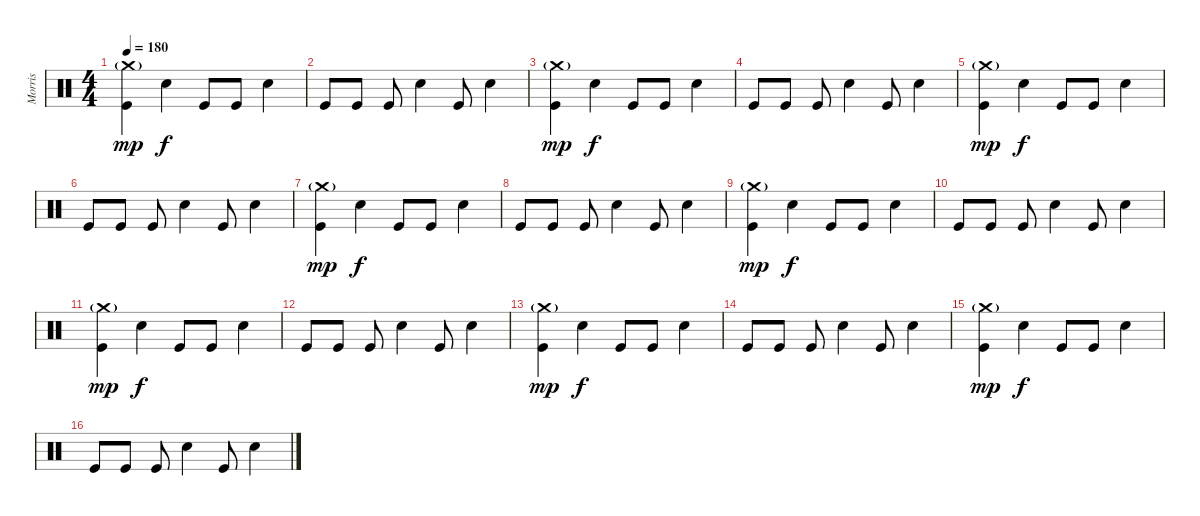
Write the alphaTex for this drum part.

\track ("Morris" "Morris") {instrument percussion}
\staff {score}
\articulation defaults
\ts (4 4)
\tempo 180
\clef neutral
\ks c
("Crash medium (hit)"{g} "Kick (hit)").4{dy mp} "Electric Snare (hit)".4{dy f} "Kick (hit)".8 "Kick (hit)".8 "Electric Snare (hit)".4 |
"Kick (hit)".8 "Kick (hit)".8 "Kick (hit)".8 "Electric Snare (hit)".4 "Kick (hit)".8 "Electric Snare (hit)".4 |
("Crash medium (hit)"{g} "Kick (hit)").4{dy mp} "Electric Snare (hit)".4{dy f} "Kick (hit)".8 "Kick (hit)".8 "Electric Snare (hit)".4 |
"Kick (hit)".8 "Kick (hit)".8 "Kick (hit)".8 "Electric Snare (hit)".4 "Kick (hit)".8 "Electric Snare (hit)".4 |
("Crash medium (hit)"{g} "Kick (hit)").4{dy mp} "Electric Snare (hit)".4{dy f} "Kick (hit)".8 "Kick (hit)".8 "Electric Snare (hit)".4 |
"Kick (hit)".8 "Kick (hit)".8 "Kick (hit)".8 "Electric Snare (hit)".4 "Kick (hit)".8 "Electric Snare (hit)".4 |
("Crash medium (hit)"{g} "Kick (hit)").4{dy mp} "Electric Snare (hit)".4{dy f} "Kick (hit)".8 "Kick (hit)".8 "Electric Snare (hit)".4 |
"Kick (hit)".8 "Kick (hit)".8 "Kick (hit)".8 "Electric Snare (hit)".4 "Kick (hit)".8 "Electric Snare (hit)".4 |
("Crash medium (hit)"{g} "Kick (hit)").4{dy mp} "Electric Snare (hit)".4{dy f} "Kick (hit)".8 "Kick (hit)".8 "Electric Snare (hit)".4 |
"Kick (hit)".8 "Kick (hit)".8 "Kick (hit)".8 "Electric Snare (hit)".4 "Kick (hit)".8 "Electric Snare (hit)".4 |
("Crash medium (hit)"{g} "Kick (hit)").4{dy mp} "Electric Snare (hit)".4{dy f} "Kick (hit)".8 "Kick (hit)".8 "Electric Snare (hit)".4 |
"Kick (hit)".8 "Kick (hit)".8 "Kick (hit)".8 "Electric Snare (hit)".4 "Kick (hit)".8 "Electric Snare (hit)".4 |
("Crash medium (hit)"{g} "Kick (hit)").4{dy mp} "Electric Snare (hit)".4{dy f} "Kick (hit)".8 "Kick (hit)".8 "Electric Snare (hit)".4 |
"Kick (hit)".8 "Kick (hit)".8 "Kick (hit)".8 "Electric Snare (hit)".4 "Kick (hit)".8 "Electric Snare (hit)".4 |
("Crash medium (hit)"{g} "Kick (hit)").4{dy mp} "Electric Snare (hit)".4{dy f} "Kick (hit)".8 "Kick (hit)".8 "Electric Snare (hit)".4 |
"Kick (hit)".8 "Kick (hit)".8 "Kick (hit)".8 "Electric Snare (hit)".4 "Kick (hit)".8 "Electric Snare (hit)".4
